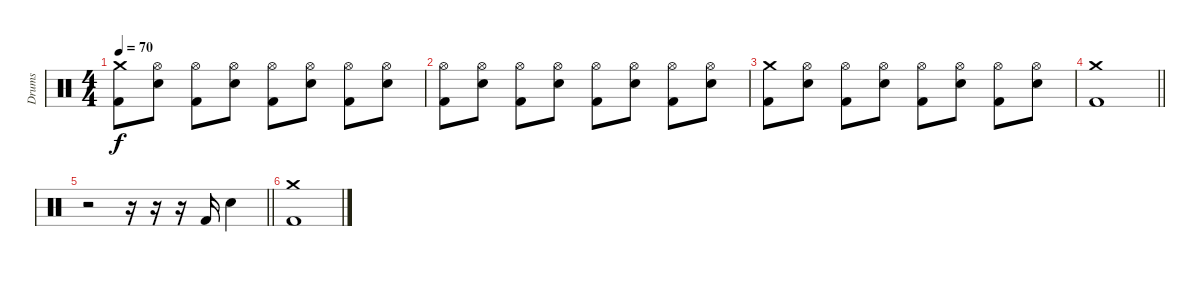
\track ("Drums" "Drums") {instrument percussion}
\staff {score}
\articulation defaults
\ts (4 4)
\tempo 70
\clef neutral
\ks c
("Crash medium (hit)" "Kick (hit) 2").8{dy f} ("Hi-Hat (open)" "Snare (hit) 2").8 ("Hi-Hat (open)" "Kick (hit) 2").8 ("Hi-Hat (open)" "Snare (hit) 2").8 ("Hi-Hat (open)" "Kick (hit) 2").8 ("Hi-Hat (open)" "Snare (hit) 2").8 ("Hi-Hat (open)" "Kick (hit) 2").8 ("Hi-Hat (open)" "Snare (hit) 2").8 |
("Hi-Hat (open)" "Kick (hit) 2").8 ("Hi-Hat (open)" "Snare (hit) 2").8 ("Hi-Hat (open)" "Kick (hit) 2").8 ("Hi-Hat (open)" "Snare (hit) 2").8 ("Hi-Hat (open)" "Kick (hit) 2").8 ("Hi-Hat (open)" "Snare (hit) 2").8 ("Hi-Hat (open)" "Kick (hit) 2").8 ("Hi-Hat (open)" "Snare (hit) 2").8 |
("Crash medium (hit)" "Kick (hit) 2").8 ("Hi-Hat (open)" "Snare (hit) 2").8 ("Hi-Hat (open)" "Kick (hit) 2").8 ("Hi-Hat (open)" "Snare (hit) 2").8 ("Hi-Hat (open)" "Kick (hit) 2").8 ("Hi-Hat (open)" "Snare (hit) 2").8 ("Hi-Hat (open)" "Kick (hit) 2").8 ("Hi-Hat (open)" "Snare (hit) 2").8 |
\barLineRight lightlight
("Crash medium (hit)" "Kick (hit) 2").1 |
\barLineRight lightlight
r.2 r.16 r.16 r.16 "Kick (hit) 2".16 "Snare (hit) 2".4 |
("Crash medium (hit)" "Kick (hit) 2").1
